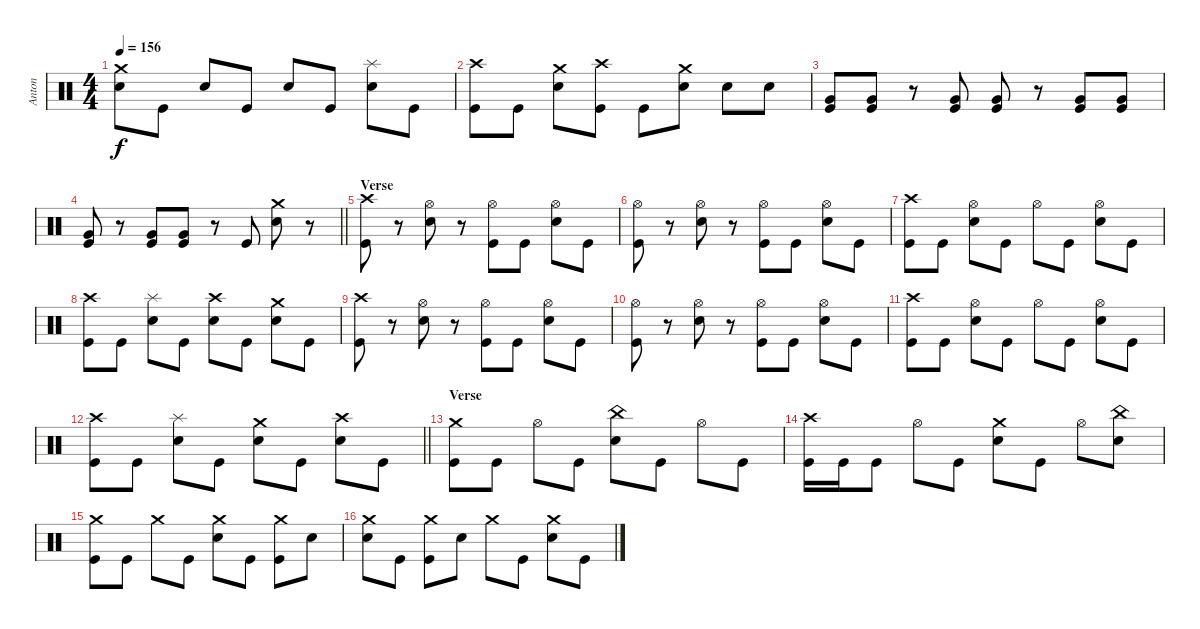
\track ("Anton " "Anton ") {instrument percussion}
\staff
\articulation defaults
\ts (4 4)
\tempo 156
\clef neutral
\ks c
("Snare (hit) 2" "Crash medium (hit)").8{dy f} "Kick (hit)".8 "Snare (hit) 2".8 "Kick (hit)".8 "Snare (hit) 2".8 "Kick (hit)".8 ("Snare (hit) 2" "Splash (hit)").8 "Kick (hit)".8 |
("Crash high (hit)" "Kick (hit)").8 "Kick (hit)".8 ("Snare (hit) 2" "Crash medium (hit)").8 ("Kick (hit)" "Crash high (hit)").8 "Kick (hit)".8 ("Snare (hit) 2" "Crash medium (hit)").8 "Snare (hit) 2".8 "Snare (hit) 2".8 |
("Kick (hit)" "Very Low Tom (hit)").8 ("Very Low Tom (hit)" "Kick (hit)").8 r.8 ("Kick (hit)" "Very Low Tom (hit)").8 ("Kick (hit)" "Very Low Tom (hit)").8 r.8 ("Kick (hit)" "Very Low Tom (hit)").8 ("Kick (hit)" "Very Low Tom (hit)").8 |
\barLineRight lightlight
("Kick (hit)" "Very Low Tom (hit)").8 r.8 ("Kick (hit)" "Very Low Tom (hit)").8 ("Kick (hit)" "Very Low Tom (hit)").8 r.8 "Kick (hit)".8 ("Snare (hit) 2" "Crash medium (hit)").8 r.8 |
\section ("" "Verse")
("Kick (hit)" "Crash high (hit)").8 r.8 ("Snare (hit) 2" "Hi-Hat (open)").8 r.8 ("Kick (hit)" "Hi-Hat (open)").8 "Kick (hit)".8 ("Snare (hit) 2" "Hi-Hat (open)").8 "Kick (hit)".8 |
("Kick (hit)" "Hi-Hat (open)").8 r.8 ("Snare (hit) 2" "Hi-Hat (open)").8 r.8 ("Hi-Hat (open)" "Kick (hit)").8 "Kick (hit)".8 ("Snare (hit) 2" "Hi-Hat (open)").8 "Kick (hit)".8 |
("Kick (hit)" "Crash high (hit)").8 "Kick (hit)".8 ("Hi-Hat (open)" "Snare (hit) 2").8 "Kick (hit)".8 "Hi-Hat (open)".8 "Kick (hit)".8 ("Hi-Hat (open)" "Snare (hit) 2").8 "Kick (hit)".8 |
("Crash high (hit)" "Kick (hit)").8 "Kick (hit)".8 ("Snare (hit) 2" "Splash (hit)").8 "Kick (hit)".8 ("Snare (hit) 2" "Crash high (hit)").8 "Kick (hit)".8 ("Snare (hit) 2" "Crash medium (hit)").8 "Kick (hit)".8 |
("Kick (hit)" "Crash high (hit)").8 r.8 ("Snare (hit) 2" "Hi-Hat (open)").8 r.8 ("Kick (hit)" "Hi-Hat (open)").8 "Kick (hit)".8 ("Snare (hit) 2" "Hi-Hat (open)").8 "Kick (hit)".8 |
("Kick (hit)" "Hi-Hat (open)").8 r.8 ("Snare (hit) 2" "Hi-Hat (open)").8 r.8 ("Hi-Hat (open)" "Kick (hit)").8 "Kick (hit)".8 ("Snare (hit) 2" "Hi-Hat (open)").8 "Kick (hit)".8 |
("Kick (hit)" "Crash high (hit)").8 "Kick (hit)".8 ("Hi-Hat (open)" "Snare (hit) 2").8 "Kick (hit)".8 "Hi-Hat (open)".8 "Kick (hit)".8 ("Hi-Hat (open)" "Snare (hit) 2").8 "Kick (hit)".8 |
\barLineRight lightlight
("Crash high (hit)" "Kick (hit)").8 "Kick (hit)".8 ("Snare (hit) 2" "Splash (hit)").8 "Kick (hit)".8 ("Snare (hit) 2" "Crash medium (hit)").8 "Kick (hit)".8 ("Snare (hit) 2" "Crash high (hit)").8 "Kick (hit)".8 |
\section ("" "Verse")
("Kick (hit)" "Crash medium (hit)").8 "Kick (hit)".8 "Hi-Hat (open)".8 "Kick (hit)".8 ("China (hit)" "Snare (hit) 2").8 "Kick (hit)".8 "Hi-Hat (open)".8 "Kick (hit)".8 |
("Crash high (hit)" "Kick (hit)").16 "Kick (hit)".16 "Kick (hit)".8 "Hi-Hat (open)".8 "Kick (hit)".8 ("Crash medium (hit)" "Snare (hit) 2").8 "Kick (hit)".8 "Hi-Hat (open)".8 ("Snare (hit) 2" "China (hit)").8 |
("Crash medium (hit)" "Kick (hit)").8 "Kick (hit)".8 "Crash medium (hit)".8 "Kick (hit)".8 ("Crash medium (hit)" "Snare (hit) 2").8 "Kick (hit)".8 ("Crash medium (hit)" "Kick (hit)").8 "Snare (hit) 2".8 |
("Crash medium (hit)" "Snare (hit) 2").8 "Kick (hit)".8 ("Crash medium (hit)" "Kick (hit)").8 "Snare (hit) 2".8 "Crash medium (hit)".8 "Kick (hit)".8 ("Crash medium (hit)" "Snare (hit) 2").8 "Kick (hit)".8
